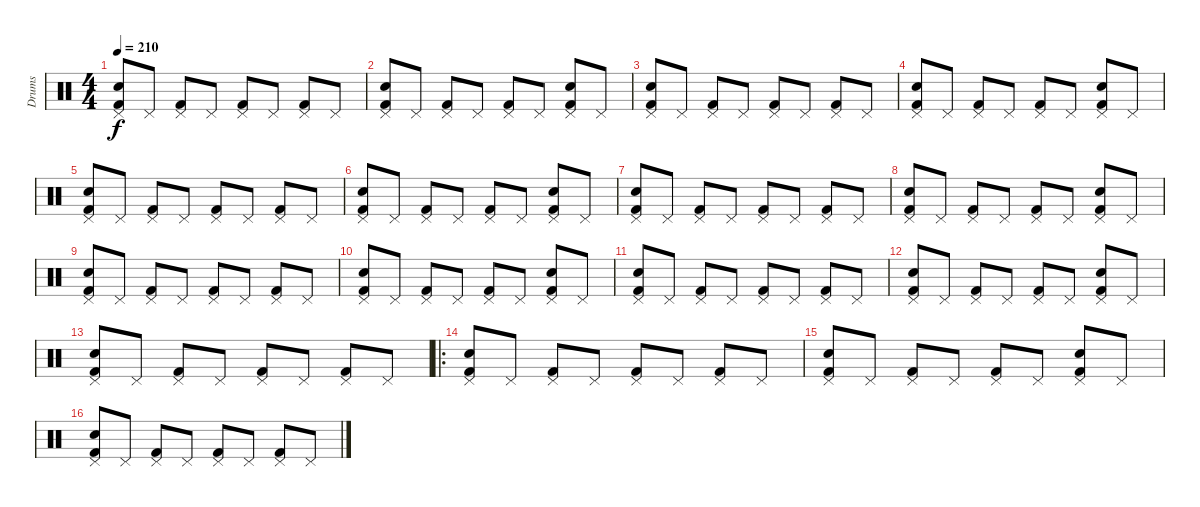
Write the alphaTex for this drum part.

\track ("Drums" "Drums") {instrument percussion}
\staff {score}
\articulation defaults
\ts (4 4)
\tempo 210
\clef neutral
\ks c
("Kick (hit) 2" "Pedal Hi-Hat (hit)" "Snare (hit) 2").8{dy f} "Pedal Hi-Hat (hit)".8 ("Kick (hit) 2" "Pedal Hi-Hat (hit)").8 "Pedal Hi-Hat (hit)".8 ("Kick (hit) 2" "Pedal Hi-Hat (hit)").8 "Pedal Hi-Hat (hit)".8 ("Kick (hit) 2" "Pedal Hi-Hat (hit)").8 "Pedal Hi-Hat (hit)".8 |
("Kick (hit) 2" "Pedal Hi-Hat (hit)" "Snare (hit) 2").8 "Pedal Hi-Hat (hit)".8 ("Kick (hit) 2" "Pedal Hi-Hat (hit)").8 "Pedal Hi-Hat (hit)".8 ("Kick (hit) 2" "Pedal Hi-Hat (hit)").8 "Pedal Hi-Hat (hit)".8 ("Kick (hit) 2" "Pedal Hi-Hat (hit)" "Snare (hit) 2").8 "Pedal Hi-Hat (hit)".8 |
("Kick (hit) 2" "Pedal Hi-Hat (hit)" "Snare (hit) 2").8 "Pedal Hi-Hat (hit)".8 ("Kick (hit) 2" "Pedal Hi-Hat (hit)").8 "Pedal Hi-Hat (hit)".8 ("Kick (hit) 2" "Pedal Hi-Hat (hit)").8 "Pedal Hi-Hat (hit)".8 ("Kick (hit) 2" "Pedal Hi-Hat (hit)").8 "Pedal Hi-Hat (hit)".8 |
("Kick (hit) 2" "Pedal Hi-Hat (hit)" "Snare (hit) 2").8 "Pedal Hi-Hat (hit)".8 ("Kick (hit) 2" "Pedal Hi-Hat (hit)").8 "Pedal Hi-Hat (hit)".8 ("Kick (hit) 2" "Pedal Hi-Hat (hit)").8 "Pedal Hi-Hat (hit)".8 ("Kick (hit) 2" "Pedal Hi-Hat (hit)" "Snare (hit) 2").8 "Pedal Hi-Hat (hit)".8 |
("Kick (hit) 2" "Pedal Hi-Hat (hit)" "Snare (hit) 2").8 "Pedal Hi-Hat (hit)".8 ("Kick (hit) 2" "Pedal Hi-Hat (hit)").8 "Pedal Hi-Hat (hit)".8 ("Kick (hit) 2" "Pedal Hi-Hat (hit)").8 "Pedal Hi-Hat (hit)".8 ("Kick (hit) 2" "Pedal Hi-Hat (hit)").8 "Pedal Hi-Hat (hit)".8 |
("Kick (hit) 2" "Pedal Hi-Hat (hit)" "Snare (hit) 2").8 "Pedal Hi-Hat (hit)".8 ("Kick (hit) 2" "Pedal Hi-Hat (hit)").8 "Pedal Hi-Hat (hit)".8 ("Kick (hit) 2" "Pedal Hi-Hat (hit)").8 "Pedal Hi-Hat (hit)".8 ("Kick (hit) 2" "Pedal Hi-Hat (hit)" "Snare (hit) 2").8 "Pedal Hi-Hat (hit)".8 |
("Kick (hit) 2" "Pedal Hi-Hat (hit)" "Snare (hit) 2").8 "Pedal Hi-Hat (hit)".8 ("Kick (hit) 2" "Pedal Hi-Hat (hit)").8 "Pedal Hi-Hat (hit)".8 ("Kick (hit) 2" "Pedal Hi-Hat (hit)").8 "Pedal Hi-Hat (hit)".8 ("Kick (hit) 2" "Pedal Hi-Hat (hit)").8 "Pedal Hi-Hat (hit)".8 |
("Kick (hit) 2" "Pedal Hi-Hat (hit)" "Snare (hit) 2").8 "Pedal Hi-Hat (hit)".8 ("Kick (hit) 2" "Pedal Hi-Hat (hit)").8 "Pedal Hi-Hat (hit)".8 ("Kick (hit) 2" "Pedal Hi-Hat (hit)").8 "Pedal Hi-Hat (hit)".8 ("Kick (hit) 2" "Pedal Hi-Hat (hit)" "Snare (hit) 2").8 "Pedal Hi-Hat (hit)".8 |
("Kick (hit) 2" "Pedal Hi-Hat (hit)" "Snare (hit) 2").8 "Pedal Hi-Hat (hit)".8 ("Kick (hit) 2" "Pedal Hi-Hat (hit)").8 "Pedal Hi-Hat (hit)".8 ("Kick (hit) 2" "Pedal Hi-Hat (hit)").8 "Pedal Hi-Hat (hit)".8 ("Kick (hit) 2" "Pedal Hi-Hat (hit)").8 "Pedal Hi-Hat (hit)".8 |
("Kick (hit) 2" "Pedal Hi-Hat (hit)" "Snare (hit) 2").8 "Pedal Hi-Hat (hit)".8 ("Kick (hit) 2" "Pedal Hi-Hat (hit)").8 "Pedal Hi-Hat (hit)".8 ("Kick (hit) 2" "Pedal Hi-Hat (hit)").8 "Pedal Hi-Hat (hit)".8 ("Kick (hit) 2" "Pedal Hi-Hat (hit)" "Snare (hit) 2").8 "Pedal Hi-Hat (hit)".8 |
("Kick (hit) 2" "Pedal Hi-Hat (hit)" "Snare (hit) 2").8 "Pedal Hi-Hat (hit)".8 ("Kick (hit) 2" "Pedal Hi-Hat (hit)").8 "Pedal Hi-Hat (hit)".8 ("Kick (hit) 2" "Pedal Hi-Hat (hit)").8 "Pedal Hi-Hat (hit)".8 ("Kick (hit) 2" "Pedal Hi-Hat (hit)").8 "Pedal Hi-Hat (hit)".8 |
("Kick (hit) 2" "Pedal Hi-Hat (hit)" "Snare (hit) 2").8 "Pedal Hi-Hat (hit)".8 ("Kick (hit) 2" "Pedal Hi-Hat (hit)").8 "Pedal Hi-Hat (hit)".8 ("Kick (hit) 2" "Pedal Hi-Hat (hit)").8 "Pedal Hi-Hat (hit)".8 ("Kick (hit) 2" "Pedal Hi-Hat (hit)" "Snare (hit) 2").8 "Pedal Hi-Hat (hit)".8 |
("Kick (hit) 2" "Pedal Hi-Hat (hit)" "Snare (hit) 2").8 "Pedal Hi-Hat (hit)".8 ("Kick (hit) 2" "Pedal Hi-Hat (hit)").8 "Pedal Hi-Hat (hit)".8 ("Kick (hit) 2" "Pedal Hi-Hat (hit)").8 "Pedal Hi-Hat (hit)".8 ("Kick (hit) 2" "Pedal Hi-Hat (hit)").8 "Pedal Hi-Hat (hit)".8 |
\ro
("Kick (hit) 2" "Pedal Hi-Hat (hit)" "Snare (hit) 2").8 "Pedal Hi-Hat (hit)".8 ("Kick (hit) 2" "Pedal Hi-Hat (hit)").8 "Pedal Hi-Hat (hit)".8 ("Kick (hit) 2" "Pedal Hi-Hat (hit)").8 "Pedal Hi-Hat (hit)".8 ("Kick (hit) 2" "Pedal Hi-Hat (hit)").8 "Pedal Hi-Hat (hit)".8 |
("Kick (hit) 2" "Pedal Hi-Hat (hit)" "Snare (hit) 2").8 "Pedal Hi-Hat (hit)".8 ("Kick (hit) 2" "Pedal Hi-Hat (hit)").8 "Pedal Hi-Hat (hit)".8 ("Kick (hit) 2" "Pedal Hi-Hat (hit)").8 "Pedal Hi-Hat (hit)".8 ("Kick (hit) 2" "Pedal Hi-Hat (hit)" "Snare (hit) 2").8 "Pedal Hi-Hat (hit)".8 |
("Kick (hit) 2" "Pedal Hi-Hat (hit)" "Snare (hit) 2").8 "Pedal Hi-Hat (hit)".8 ("Kick (hit) 2" "Pedal Hi-Hat (hit)").8 "Pedal Hi-Hat (hit)".8 ("Kick (hit) 2" "Pedal Hi-Hat (hit)").8 "Pedal Hi-Hat (hit)".8 ("Kick (hit) 2" "Pedal Hi-Hat (hit)").8 "Pedal Hi-Hat (hit)".8
